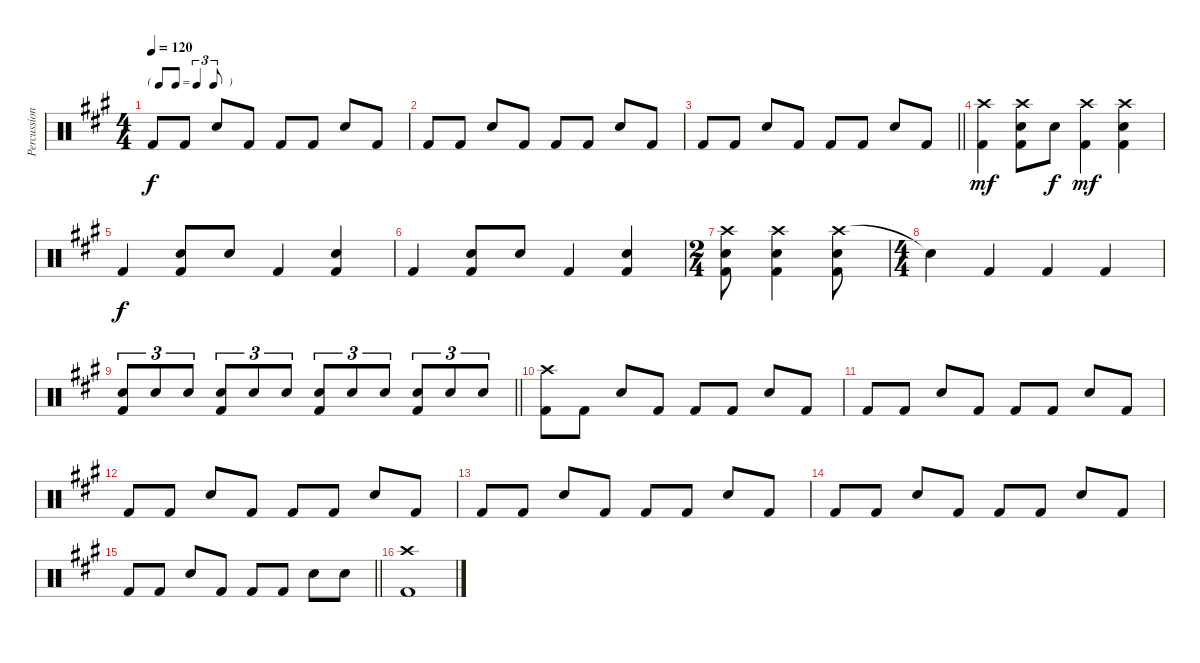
\track ("Percussion" "Percussion") {instrument percussion}
\staff {score}
\articulation defaults
\ts (4 4)
\tf triplet8th
\tempo 120
\clef neutral
\ks a "Kick (hit) 2".8{dy f} "Kick (hit) 2".8 "Snare (hit) 2".8 "Kick (hit) 2".8 "Kick (hit) 2".8 "Kick (hit) 2".8 "Snare (hit) 2".8 "Kick (hit) 2".8
|
"Kick (hit) 2".8 "Kick (hit) 2".8 "Snare (hit) 2".8 "Kick (hit) 2".8 "Kick (hit) 2".8 "Kick (hit) 2".8 "Snare (hit) 2".8 "Kick (hit) 2".8 |
\barLineRight lightlight "Kick (hit) 2".8 "Kick (hit) 2".8 "Snare (hit) 2".8 "Kick (hit) 2".8 "Kick (hit) 2".8 "Kick (hit) 2".8 "Snare (hit) 2".8 "Kick (hit) 2".8
|
("Crash high (hit)" "Kick (hit) 2").4{dy mf} ("Crash high (hit)" "Snare (hit) 2" "Kick (hit) 2").8 "Snare (hit) 2".8{dy f} ("Crash high (hit)" "Kick (hit) 2").4{dy mf} ("Crash high (hit)" "Snare (hit) 2" "Kick (hit) 2").4 |
"Kick (hit) 2".4{dy f} ("Snare (hit) 2" "Kick (hit) 2").8 "Snare (hit) 2".8 "Kick (hit) 2".4 ("Snare (hit) 2" "Kick (hit) 2").4 |
"Kick (hit) 2".4 ("Snare (hit) 2" "Kick (hit) 2").8 "Snare (hit) 2".8 "Kick (hit) 2".4 ("Snare (hit) 2" "Kick (hit) 2").4 |
\ts (2 4)
("Crash high (hit)" "Snare (hit) 2" "Kick (hit) 2").8 ("Crash high (hit)" "Snare (hit) 2" "Kick (hit) 2").4 ("Crash high (hit)" "Snare (hit) 2" "Kick (hit) 2").8 |
\ts (4 4)
"Snare (hit)"{t}.4 "Kick (hit) 2".4 "Kick (hit) 2".4 "Kick (hit) 2".4 |
\barLineRight lightlight
("Snare (hit) 2" "Kick (hit) 2").8{tu (3 2)} "Snare (hit) 2".8{tu (3 2)} "Snare (hit) 2".8{tu (3 2)} ("Snare (hit) 2" "Kick (hit) 2").8{tu (3 2)} "Snare (hit) 2".8{tu (3 2)} "Snare (hit) 2".8{tu (3 2)} ("Snare (hit) 2" "Kick (hit) 2").8{tu (3 2)} "Snare (hit) 2".8{tu (3 2)} "Snare (hit) 2".8{tu (3 2)} ("Snare (hit) 2" "Kick (hit) 2").8{tu (3 2)} "Snare (hit) 2".8{tu (3 2)} "Snare (hit) 2".8{tu (3 2)} |
("Crash high (hit)" "Kick (hit) 2").8 "Kick (hit) 2".8 "Snare (hit) 2".8 "Kick (hit) 2".8 "Kick (hit) 2".8 "Kick (hit) 2".8 "Snare (hit) 2".8 "Kick (hit) 2".8 |
"Kick (hit) 2".8 "Kick (hit) 2".8 "Snare (hit) 2".8 "Kick (hit) 2".8 "Kick (hit) 2".8 "Kick (hit) 2".8 "Snare (hit) 2".8 "Kick (hit) 2".8 |
"Kick (hit) 2".8 "Kick (hit) 2".8 "Snare (hit) 2".8 "Kick (hit) 2".8 "Kick (hit) 2".8 "Kick (hit) 2".8 "Snare (hit) 2".8 "Kick (hit) 2".8 |
"Kick (hit) 2".8 "Kick (hit) 2".8 "Snare (hit) 2".8 "Kick (hit) 2".8 "Kick (hit) 2".8 "Kick (hit) 2".8 "Snare (hit) 2".8 "Kick (hit) 2".8 |
"Kick (hit) 2".8 "Kick (hit) 2".8 "Snare (hit) 2".8 "Kick (hit) 2".8 "Kick (hit) 2".8 "Kick (hit) 2".8 "Snare (hit) 2".8 "Kick (hit) 2".8 |
\barLineRight lightlight "Kick (hit) 2".8 "Kick (hit) 2".8 "Snare (hit) 2".8 "Kick (hit) 2".8 "Kick (hit) 2".8 "Kick (hit) 2".8 "Snare (hit) 2".8 "Snare (hit) 2".8
|
("Crash high (hit)" "Kick (hit) 2").1
